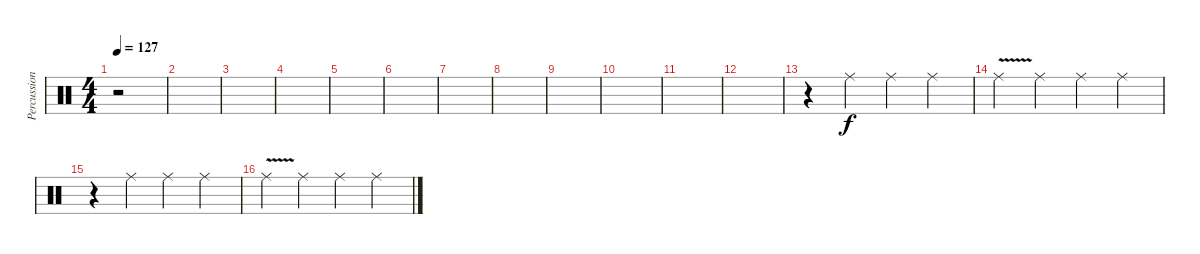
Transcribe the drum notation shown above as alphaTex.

\track ("Percussion" "Percussion") {instrument percussion}
\staff {score}
\articulation defaults
\ts (4 4)
\tempo 127
\clef neutral
\ks c
r.2{dy f} |
|
|
|
|
|
|
|
|
|
|
|
r.4 "Ride (middle)".4 "Ride (middle)".4 "Ride (middle)".4 |
"Ride (middle)"{v}.4 "Ride (middle)".4 "Ride (middle)".4 "Ride (middle)".4 |
r.4 "Ride (middle)".4 "Ride (middle)".4 "Ride (middle)".4 |
"Ride (middle)"{v}.4 "Ride (middle)".4 "Ride (middle)".4 "Ride (middle)".4
